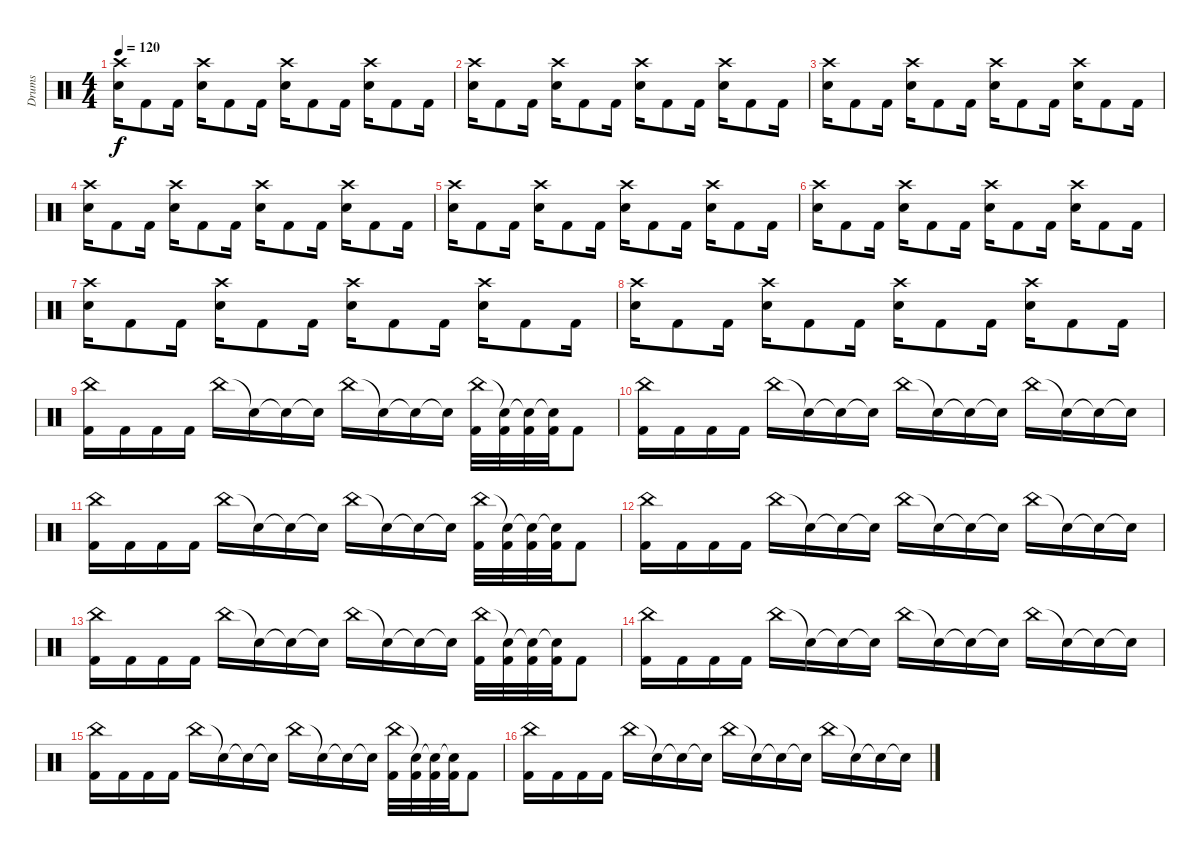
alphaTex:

\track ("Drums" "Drums") {instrument percussion}
\staff {score}
\articulation defaults
\ts (4 4)
\tempo 120
\clef neutral
\ks c
("Crash high (hit)" "Electric Snare (hit)").16{dy f} "Kick (hit) 2".8 "Kick (hit) 2".16 ("Crash high (hit)" "Electric Snare (hit)").16 "Kick (hit) 2".8 "Kick (hit) 2".16 ("Crash high (hit)" "Electric Snare (hit)").16 "Kick (hit) 2".8 "Kick (hit) 2".16 ("Crash high (hit)" "Electric Snare (hit)").16 "Kick (hit) 2".8 "Kick (hit) 2".16 |
("Crash high (hit)" "Electric Snare (hit)").16 "Kick (hit) 2".8 "Kick (hit) 2".16 ("Crash high (hit)" "Electric Snare (hit)").16 "Kick (hit) 2".8 "Kick (hit) 2".16 ("Crash high (hit)" "Electric Snare (hit)").16 "Kick (hit) 2".8 "Kick (hit) 2".16 ("Crash high (hit)" "Electric Snare (hit)").16 "Kick (hit) 2".8 "Kick (hit) 2".16 |
("Crash high (hit)" "Electric Snare (hit)").16 "Kick (hit) 2".8 "Kick (hit) 2".16 ("Crash high (hit)" "Electric Snare (hit)").16 "Kick (hit) 2".8 "Kick (hit) 2".16 ("Crash high (hit)" "Electric Snare (hit)").16 "Kick (hit) 2".8 "Kick (hit) 2".16 ("Crash high (hit)" "Electric Snare (hit)").16 "Kick (hit) 2".8 "Kick (hit) 2".16 |
("Crash high (hit)" "Electric Snare (hit)").16 "Kick (hit) 2".8 "Kick (hit) 2".16 ("Crash high (hit)" "Electric Snare (hit)").16 "Kick (hit) 2".8 "Kick (hit) 2".16 ("Crash high (hit)" "Electric Snare (hit)").16 "Kick (hit) 2".8 "Kick (hit) 2".16 ("Crash high (hit)" "Electric Snare (hit)").16 "Kick (hit) 2".8 "Kick (hit) 2".16 |
("Crash high (hit)" "Electric Snare (hit)").16 "Kick (hit) 2".8 "Kick (hit) 2".16 ("Crash high (hit)" "Electric Snare (hit)").16 "Kick (hit) 2".8 "Kick (hit) 2".16 ("Crash high (hit)" "Electric Snare (hit)").16 "Kick (hit) 2".8 "Kick (hit) 2".16 ("Crash high (hit)" "Electric Snare (hit)").16 "Kick (hit) 2".8 "Kick (hit) 2".16 |
("Crash high (hit)" "Electric Snare (hit)").16 "Kick (hit) 2".8 "Kick (hit) 2".16 ("Crash high (hit)" "Electric Snare (hit)").16 "Kick (hit) 2".8 "Kick (hit) 2".16 ("Crash high (hit)" "Electric Snare (hit)").16 "Kick (hit) 2".8 "Kick (hit) 2".16 ("Crash high (hit)" "Electric Snare (hit)").16 "Kick (hit) 2".8 "Kick (hit) 2".16 |
("Crash high (hit)" "Electric Snare (hit)").16 "Kick (hit) 2".8 "Kick (hit) 2".16 ("Crash high (hit)" "Electric Snare (hit)").16 "Kick (hit) 2".8 "Kick (hit) 2".16 ("Crash high (hit)" "Electric Snare (hit)").16 "Kick (hit) 2".8 "Kick (hit) 2".16 ("Crash high (hit)" "Electric Snare (hit)").16 "Kick (hit) 2".8 "Kick (hit) 2".16 |
("Crash high (hit)" "Electric Snare (hit)").16 "Kick (hit) 2".8 "Kick (hit) 2".16 ("Crash high (hit)" "Electric Snare (hit)").16 "Kick (hit) 2".8 "Kick (hit) 2".16 ("Crash high (hit)" "Electric Snare (hit)").16 "Kick (hit) 2".8 "Kick (hit) 2".16 ("Crash high (hit)" "Electric Snare (hit)").16 "Kick (hit) 2".8 "Kick (hit) 2".16 |
("China (hit)" "Kick (hit) 2").16 "Kick (hit) 2".16 "Kick (hit) 2".16 "Kick (hit) 2".16 "China (hit)".16 "Snare (hit)"{t}.16 "Snare (hit)"{t}.16 "Snare (hit)"{t}.16 "China (hit)".16 "Snare (hit)"{t}.16 "Snare (hit)"{t}.16 "Snare (hit)"{t}.16 ("China (hit)" "Kick (hit) 2").32 ("Snare (hit)"{t} "Kick (hit) 2").32 ("Snare (hit)"{t} "Kick (hit) 2").32 ("Snare (hit)"{t} "Kick (hit) 2").32 "Kick (hit) 2".8 |
("China (hit)" "Kick (hit) 2").16 "Kick (hit) 2".16 "Kick (hit) 2".16 "Kick (hit) 2".16 "China (hit)".16 "Snare (hit)"{t}.16 "Snare (hit)"{t}.16 "Snare (hit)"{t}.16 "China (hit)".16 "Snare (hit)"{t}.16 "Snare (hit)"{t}.16 "Snare (hit)"{t}.16 "China (hit)".16 "Snare (hit)"{t}.16 "Snare (hit)"{t}.16 "Snare (hit)"{t}.16 |
("China (hit)" "Kick (hit) 2").16 "Kick (hit) 2".16 "Kick (hit) 2".16 "Kick (hit) 2".16 "China (hit)".16 "Snare (hit)"{t}.16 "Snare (hit)"{t}.16 "Snare (hit)"{t}.16 "China (hit)".16 "Snare (hit)"{t}.16 "Snare (hit)"{t}.16 "Snare (hit)"{t}.16 ("China (hit)" "Kick (hit) 2").32 ("Snare (hit)"{t} "Kick (hit) 2").32 ("Snare (hit)"{t} "Kick (hit) 2").32 ("Snare (hit)"{t} "Kick (hit) 2").32 "Kick (hit) 2".8 |
("China (hit)" "Kick (hit) 2").16 "Kick (hit) 2".16 "Kick (hit) 2".16 "Kick (hit) 2".16 "China (hit)".16 "Snare (hit)"{t}.16 "Snare (hit)"{t}.16 "Snare (hit)"{t}.16 "China (hit)".16 "Snare (hit)"{t}.16 "Snare (hit)"{t}.16 "Snare (hit)"{t}.16 "China (hit)".16 "Snare (hit)"{t}.16 "Snare (hit)"{t}.16 "Snare (hit)"{t}.16 |
("China (hit)" "Kick (hit) 2").16 "Kick (hit) 2".16 "Kick (hit) 2".16 "Kick (hit) 2".16 "China (hit)".16 "Snare (hit)"{t}.16 "Snare (hit)"{t}.16 "Snare (hit)"{t}.16 "China (hit)".16 "Snare (hit)"{t}.16 "Snare (hit)"{t}.16 "Snare (hit)"{t}.16 ("China (hit)" "Kick (hit) 2").32 ("Snare (hit)"{t} "Kick (hit) 2").32 ("Snare (hit)"{t} "Kick (hit) 2").32 ("Snare (hit)"{t} "Kick (hit) 2").32 "Kick (hit) 2".8 |
("China (hit)" "Kick (hit) 2").16 "Kick (hit) 2".16 "Kick (hit) 2".16 "Kick (hit) 2".16 "China (hit)".16 "Snare (hit)"{t}.16 "Snare (hit)"{t}.16 "Snare (hit)"{t}.16 "China (hit)".16 "Snare (hit)"{t}.16 "Snare (hit)"{t}.16 "Snare (hit)"{t}.16 "China (hit)".16 "Snare (hit)"{t}.16 "Snare (hit)"{t}.16 "Snare (hit)"{t}.16 |
("China (hit)" "Kick (hit) 2").16 "Kick (hit) 2".16 "Kick (hit) 2".16 "Kick (hit) 2".16 "China (hit)".16 "Snare (hit)"{t}.16 "Snare (hit)"{t}.16 "Snare (hit)"{t}.16 "China (hit)".16 "Snare (hit)"{t}.16 "Snare (hit)"{t}.16 "Snare (hit)"{t}.16 ("China (hit)" "Kick (hit) 2").32 ("Snare (hit)"{t} "Kick (hit) 2").32 ("Snare (hit)"{t} "Kick (hit) 2").32 ("Snare (hit)"{t} "Kick (hit) 2").32 "Kick (hit) 2".8 |
("China (hit)" "Kick (hit) 2").16 "Kick (hit) 2".16 "Kick (hit) 2".16 "Kick (hit) 2".16 "China (hit)".16 "Snare (hit)"{t}.16 "Snare (hit)"{t}.16 "Snare (hit)"{t}.16 "China (hit)".16 "Snare (hit)"{t}.16 "Snare (hit)"{t}.16 "Snare (hit)"{t}.16 "China (hit)".16 "Snare (hit)"{t}.16 "Snare (hit)"{t}.16 "Snare (hit)"{t}.16
